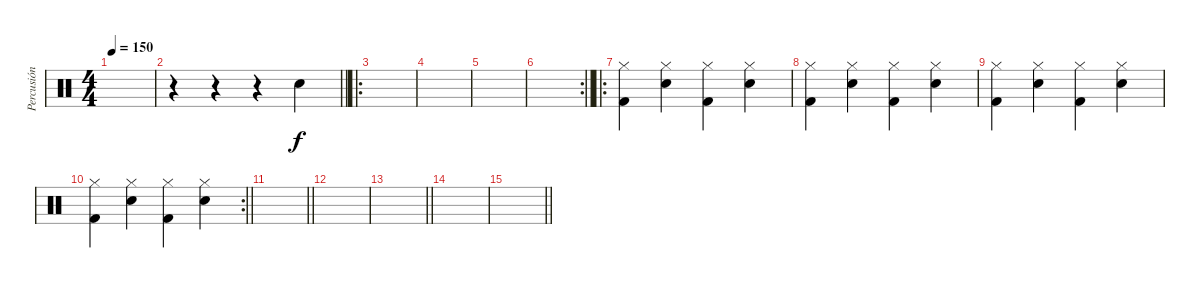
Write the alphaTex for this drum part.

\track ("Percusión" "Percusión") {instrument percussion}
\staff {score}
\articulation defaults
\ts (4 4)
\tempo 150
\clef neutral
\ks c
|
\barLineRight lightlight
r.4 r.4 r.4 "Snare (hit) 2".4 |
\ro
|
|
|
\rc 2
\barLineRight lightlight
|
\ro
("Hi-Hat (closed)" "Kick (hit) 2").4 ("Hi-Hat (closed)" "Snare (hit) 2").4 ("Hi-Hat (closed)" "Kick (hit) 2").4 ("Hi-Hat (closed)" "Snare (hit) 2").4 |
("Hi-Hat (closed)" "Kick (hit) 2").4 ("Hi-Hat (closed)" "Snare (hit) 2").4 ("Hi-Hat (closed)" "Kick (hit) 2").4 ("Hi-Hat (closed)" "Snare (hit) 2").4 |
("Hi-Hat (closed)" "Kick (hit) 2").4 ("Hi-Hat (closed)" "Snare (hit) 2").4 ("Hi-Hat (closed)" "Kick (hit) 2").4 ("Hi-Hat (closed)" "Snare (hit) 2").4 |
\rc 2
\barLineRight lightlight
("Hi-Hat (closed)" "Kick (hit) 2").4 ("Hi-Hat (closed)" "Snare (hit) 2").4 ("Hi-Hat (closed)" "Kick (hit) 2").4 ("Hi-Hat (closed)" "Snare (hit) 2").4 |
\barLineRight lightlight
|
|
\barLineRight lightlight
|
|
\barLineRight lightlight
